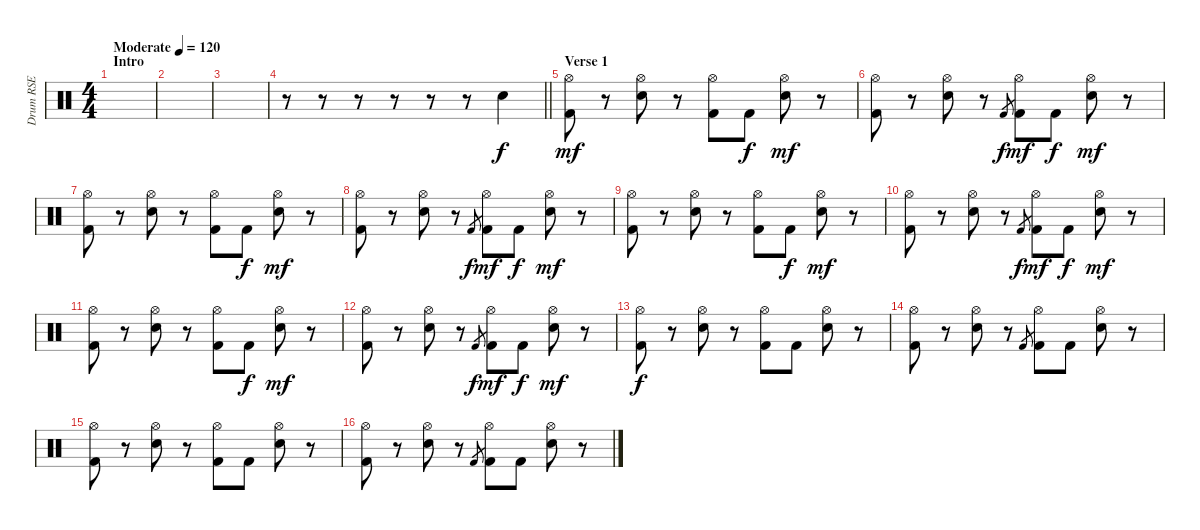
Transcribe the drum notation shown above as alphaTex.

\track ("Drum RSE" "Drum RSE") {instrument percussion}
\staff {score}
\articulation defaults
\ts (4 4)
\section ("" "Intro")
\tempo (120 "Moderate")
\clef neutral
\ks c
|
|
|
\barLineRight lightlight
r.8 r.8 r.8 r.8 r.8 r.8 "Snare (hit) 2".4 |
\section ("" "Verse 1")
("Hi-Hat (open)" "Kick (hit) 2").8{dy mf} r.8 ("Hi-Hat (open)" "Snare (hit) 2").8 r.8 ("Hi-Hat (open)" "Kick (hit) 2").8 "Kick (hit) 2".8{dy f} ("Hi-Hat (open)" "Snare (hit) 2").8{dy mf} r.8 |
("Hi-Hat (open)" "Kick (hit) 2").8 r.8 ("Hi-Hat (open)" "Snare (hit) 2").8 r.8 "Kick (hit) 2".8{gr dy f} ("Hi-Hat (open)" "Kick (hit) 2").8{dy mf} "Kick (hit) 2".8{dy f} ("Hi-Hat (open)" "Snare (hit) 2").8{dy mf} r.8 |
("Hi-Hat (open)" "Kick (hit) 2").8 r.8 ("Hi-Hat (open)" "Snare (hit) 2").8 r.8 ("Hi-Hat (open)" "Kick (hit) 2").8 "Kick (hit) 2".8{dy f} ("Hi-Hat (open)" "Snare (hit) 2").8{dy mf} r.8 |
("Hi-Hat (open)" "Kick (hit) 2").8 r.8 ("Hi-Hat (open)" "Snare (hit) 2").8 r.8 "Kick (hit) 2".8{gr dy f} ("Hi-Hat (open)" "Kick (hit) 2").8{dy mf} "Kick (hit) 2".8{dy f} ("Hi-Hat (open)" "Snare (hit) 2").8{dy mf} r.8 |
("Hi-Hat (open)" "Kick (hit) 2").8 r.8 ("Hi-Hat (open)" "Snare (hit) 2").8 r.8 ("Hi-Hat (open)" "Kick (hit) 2").8 "Kick (hit) 2".8{dy f} ("Hi-Hat (open)" "Snare (hit) 2").8{dy mf} r.8 |
("Hi-Hat (open)" "Kick (hit) 2").8 r.8 ("Hi-Hat (open)" "Snare (hit) 2").8 r.8 "Kick (hit) 2".8{gr dy f} ("Hi-Hat (open)" "Kick (hit) 2").8{dy mf} "Kick (hit) 2".8{dy f} ("Hi-Hat (open)" "Snare (hit) 2").8{dy mf} r.8 |
("Hi-Hat (open)" "Kick (hit) 2").8 r.8 ("Hi-Hat (open)" "Snare (hit) 2").8 r.8 ("Hi-Hat (open)" "Kick (hit) 2").8 "Kick (hit) 2".8{dy f} ("Hi-Hat (open)" "Snare (hit) 2").8{dy mf} r.8 |
("Hi-Hat (open)" "Kick (hit) 2").8 r.8 ("Hi-Hat (open)" "Snare (hit) 2").8 r.8 "Kick (hit) 2".8{gr dy f} ("Hi-Hat (open)" "Kick (hit) 2").8{dy mf} "Kick (hit) 2".8{dy f} ("Hi-Hat (open)" "Snare (hit) 2").8{dy mf} r.8 |
("Hi-Hat (open)" "Kick (hit) 2").8{dy f} r.8 ("Hi-Hat (open)" "Snare (hit) 2").8 r.8 ("Hi-Hat (open)" "Kick (hit) 2").8 "Kick (hit) 2".8 ("Hi-Hat (open)" "Snare (hit) 2").8 r.8 |
("Hi-Hat (open)" "Kick (hit) 2").8 r.8 ("Hi-Hat (open)" "Snare (hit) 2").8 r.8 "Kick (hit) 2".8{gr} ("Hi-Hat (open)" "Kick (hit) 2").8 "Kick (hit) 2".8 ("Hi-Hat (open)" "Snare (hit) 2").8 r.8 |
("Hi-Hat (open)" "Kick (hit) 2").8 r.8 ("Hi-Hat (open)" "Snare (hit) 2").8 r.8 ("Hi-Hat (open)" "Kick (hit) 2").8 "Kick (hit) 2".8 ("Hi-Hat (open)" "Snare (hit) 2").8 r.8 |
("Hi-Hat (open)" "Kick (hit) 2").8 r.8 ("Hi-Hat (open)" "Snare (hit) 2").8 r.8 "Kick (hit) 2".8{gr} ("Hi-Hat (open)" "Kick (hit) 2").8 "Kick (hit) 2".8 ("Hi-Hat (open)" "Snare (hit) 2").8 r.8
